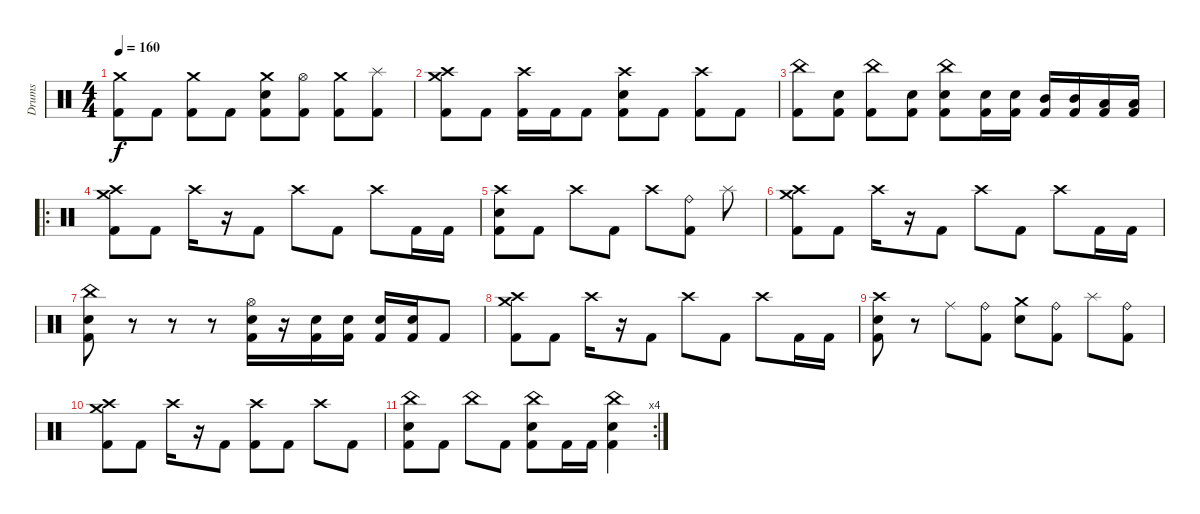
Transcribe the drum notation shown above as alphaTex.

\track ("Drums" "Drums") {instrument percussion}
\staff {score}
\articulation defaults
\ts (4 4)
\tempo 160
\clef neutral
\ks c
("Crash medium (hit)" "Kick (hit) 2").8{dy f} "Kick (hit) 2".8 ("Crash medium (hit)" "Kick (hit) 2").8 "Kick (hit) 2".8 ("Crash medium (hit)" "Electric Snare (hit)" "Kick (hit) 2").8 ("Hi-Hat (open)" "Kick (hit) 2").8 ("Crash medium (hit)" "Kick (hit) 2").8 ("Splash (hit)" "Kick (hit) 2").8 |
("Crash high (hit)" "Crash medium (hit)" "Kick (hit) 2").8 "Kick (hit) 2".8 ("Crash high (hit)" "Kick (hit) 2").16 "Kick (hit) 2".16 "Kick (hit) 2".8 ("Crash high (hit)" "Electric Snare (hit)" "Kick (hit) 2").8 "Kick (hit) 2".8 ("Crash high (hit)" "Kick (hit) 2").8 "Kick (hit) 2".8 |
("China (hit)" "Kick (hit) 2").8 ("Electric Snare (hit)" "Kick (hit) 2").8 ("China (hit)" "Kick (hit) 2").8 ("Electric Snare (hit)" "Kick (hit) 2").8 ("China (hit)" "Electric Snare (hit)" "Kick (hit) 2").8 ("Electric Snare (hit)" "Kick (hit) 2").16 ("Electric Snare (hit)" "Kick (hit) 2").16 ("Mid Tom (hit)" "Kick (hit) 2").16 ("Mid Tom (hit)" "Kick (hit) 2").16 ("Low Tom (hit)" "Kick (hit) 2").16 ("Low Tom (hit)" "Kick (hit) 2").16 |
\ro
("Crash high (hit)" "Crash medium (hit)" "Kick (hit) 2").8 "Kick (hit) 2".8 "Crash high (hit)".16 r.16 "Kick (hit) 2".8 "Crash high (hit)".8 "Kick (hit) 2".8 "Crash high (hit)".8 "Kick (hit) 2".16 "Kick (hit) 2".16 |
("Crash high (hit)" "Electric Snare (hit)" "Kick (hit) 2").8 "Kick (hit) 2".8 "Crash high (hit)".8 "Kick (hit) 2".8 "Crash high (hit)".8 ("Ride (bell)" "Kick (hit) 2").8 "Splash (hit)".8 |
("Crash high (hit)" "Crash medium (hit)" "Kick (hit) 2").8 "Kick (hit) 2".8 "Crash high (hit)".16 r.16 "Kick (hit) 2".8 "Crash high (hit)".8 "Kick (hit) 2".8 "Crash high (hit)".8 "Kick (hit) 2".16 "Kick (hit) 2".16 |
("China (hit)" "Electric Snare (hit)" "Kick (hit) 2").8 r.8 r.8 r.8 ("Hi-Hat (open)" "Electric Snare (hit)" "Kick (hit) 2").16 r.16 ("Electric Snare (hit)" "Kick (hit) 2").16 ("Electric Snare (hit)" "Kick (hit) 2").16 ("Electric Snare (hit)" "Kick (hit) 2").16 ("Electric Snare (hit)" "Kick (hit) 2").16 "Kick (hit) 2".8 |
("Crash high (hit)" "Crash medium (hit)" "Kick (hit) 2").8 "Kick (hit) 2".8 "Crash high (hit)".16 r.16 "Kick (hit) 2".8 "Crash high (hit)".8 "Kick (hit) 2".8 "Crash high (hit)".8 "Kick (hit) 2".16 "Kick (hit) 2".16 |
("Crash high (hit)" "Electric Snare (hit)" "Kick (hit) 2").8 r.8 "Ride (middle)".8 ("Ride (bell)" "Kick (hit) 2").8 ("Crash medium (hit)" "Electric Snare (hit)").8 ("Ride (bell)" "Kick (hit) 2").8 "Splash (hit)".8 ("Ride (bell)" "Kick (hit) 2").8 |
("Crash high (hit)" "Crash medium (hit)" "Kick (hit) 2").8 "Kick (hit) 2".8 "Crash high (hit)".16 r.16 "Kick (hit) 2".8 ("Crash high (hit)" "Kick (hit) 2").8 "Kick (hit) 2".8 "Crash high (hit)".8 "Kick (hit) 2".8 |
\rc 4
("China (hit)" "Electric Snare (hit)" "Kick (hit) 2").8 "Kick (hit) 2".8 "China (hit)".8 "Kick (hit) 2".8 ("China (hit)" "Electric Snare (hit)" "Kick (hit) 2").8 "Kick (hit) 2".16 "Kick (hit) 2".16 ("China (hit)" "Electric Snare (hit)" "Kick (hit) 2").4
